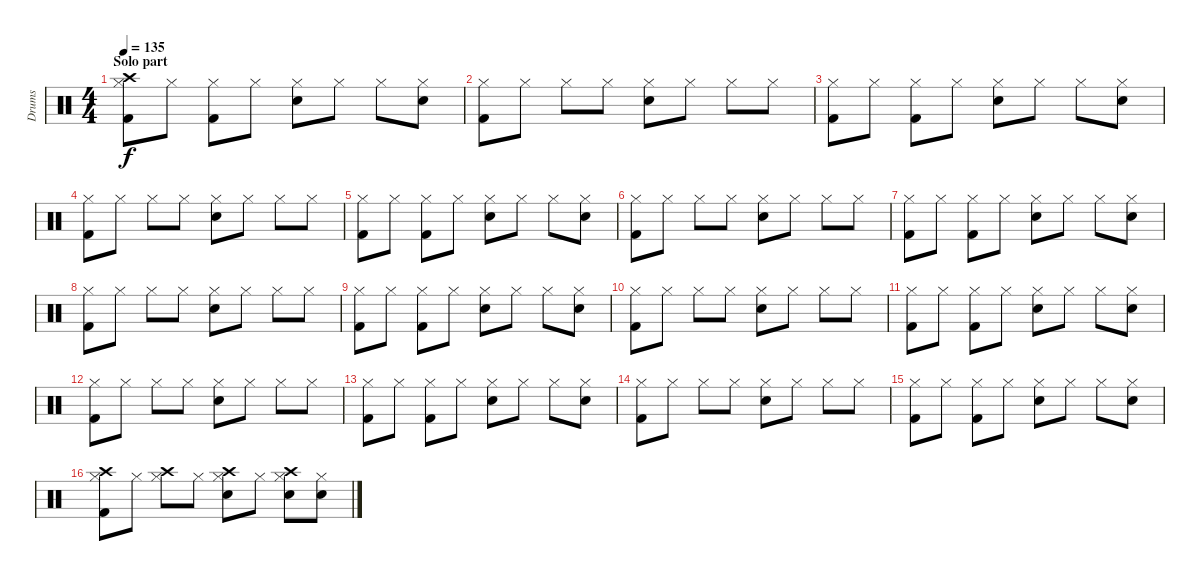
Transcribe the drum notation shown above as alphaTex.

\track ("Drums" "Drums") {instrument percussion}
\staff {score}
\articulation defaults
\ts (4 4)
\section ("" "Solo part")
\tempo 135
\clef neutral
\ks c
("Kick (hit) 2" "Hi-Hat (closed)" "Crash high (hit)").8{dy f} "Hi-Hat (closed)".8 ("Kick (hit) 2" "Hi-Hat (closed)").8 "Hi-Hat (closed)".8 ("Snare (hit) 2" "Hi-Hat (closed)").8 "Hi-Hat (closed)".8 "Hi-Hat (closed)".8 ("Snare (hit) 2" "Hi-Hat (closed)").8 |
("Kick (hit) 2" "Hi-Hat (closed)").8 "Hi-Hat (closed)".8 "Hi-Hat (closed)".8 "Hi-Hat (closed)".8 ("Snare (hit) 2" "Hi-Hat (closed)").8 "Hi-Hat (closed)".8 "Hi-Hat (closed)".8 "Hi-Hat (closed)".8 |
("Kick (hit) 2" "Hi-Hat (closed)").8 "Hi-Hat (closed)".8 ("Kick (hit) 2" "Hi-Hat (closed)").8 "Hi-Hat (closed)".8 ("Snare (hit) 2" "Hi-Hat (closed)").8 "Hi-Hat (closed)".8 "Hi-Hat (closed)".8 ("Snare (hit) 2" "Hi-Hat (closed)").8 |
("Kick (hit) 2" "Hi-Hat (closed)").8 "Hi-Hat (closed)".8 "Hi-Hat (closed)".8 "Hi-Hat (closed)".8 ("Snare (hit) 2" "Hi-Hat (closed)").8 "Hi-Hat (closed)".8 "Hi-Hat (closed)".8 "Hi-Hat (closed)".8 |
("Kick (hit) 2" "Hi-Hat (closed)").8 "Hi-Hat (closed)".8 ("Kick (hit) 2" "Hi-Hat (closed)").8 "Hi-Hat (closed)".8 ("Snare (hit) 2" "Hi-Hat (closed)").8 "Hi-Hat (closed)".8 "Hi-Hat (closed)".8 ("Snare (hit) 2" "Hi-Hat (closed)").8 |
("Kick (hit) 2" "Hi-Hat (closed)").8 "Hi-Hat (closed)".8 "Hi-Hat (closed)".8 "Hi-Hat (closed)".8 ("Snare (hit) 2" "Hi-Hat (closed)").8 "Hi-Hat (closed)".8 "Hi-Hat (closed)".8 "Hi-Hat (closed)".8 |
("Kick (hit) 2" "Hi-Hat (closed)").8 "Hi-Hat (closed)".8 ("Kick (hit) 2" "Hi-Hat (closed)").8 "Hi-Hat (closed)".8 ("Snare (hit) 2" "Hi-Hat (closed)").8 "Hi-Hat (closed)".8 "Hi-Hat (closed)".8 ("Snare (hit) 2" "Hi-Hat (closed)").8 |
("Kick (hit) 2" "Hi-Hat (closed)").8 "Hi-Hat (closed)".8 "Hi-Hat (closed)".8 "Hi-Hat (closed)".8 ("Snare (hit) 2" "Hi-Hat (closed)").8 "Hi-Hat (closed)".8 "Hi-Hat (closed)".8 "Hi-Hat (closed)".8 |
("Kick (hit) 2" "Hi-Hat (closed)").8 "Hi-Hat (closed)".8 ("Kick (hit) 2" "Hi-Hat (closed)").8 "Hi-Hat (closed)".8 ("Snare (hit) 2" "Hi-Hat (closed)").8 "Hi-Hat (closed)".8 "Hi-Hat (closed)".8 ("Snare (hit) 2" "Hi-Hat (closed)").8 |
("Kick (hit) 2" "Hi-Hat (closed)").8 "Hi-Hat (closed)".8 "Hi-Hat (closed)".8 "Hi-Hat (closed)".8 ("Snare (hit) 2" "Hi-Hat (closed)").8 "Hi-Hat (closed)".8 "Hi-Hat (closed)".8 "Hi-Hat (closed)".8 |
("Kick (hit) 2" "Hi-Hat (closed)").8 "Hi-Hat (closed)".8 ("Kick (hit) 2" "Hi-Hat (closed)").8 "Hi-Hat (closed)".8 ("Snare (hit) 2" "Hi-Hat (closed)").8 "Hi-Hat (closed)".8 "Hi-Hat (closed)".8 ("Snare (hit) 2" "Hi-Hat (closed)").8 |
("Kick (hit) 2" "Hi-Hat (closed)").8 "Hi-Hat (closed)".8 "Hi-Hat (closed)".8 "Hi-Hat (closed)".8 ("Snare (hit) 2" "Hi-Hat (closed)").8 "Hi-Hat (closed)".8 "Hi-Hat (closed)".8 "Hi-Hat (closed)".8 |
("Kick (hit) 2" "Hi-Hat (closed)").8 "Hi-Hat (closed)".8 ("Kick (hit) 2" "Hi-Hat (closed)").8 "Hi-Hat (closed)".8 ("Snare (hit) 2" "Hi-Hat (closed)").8 "Hi-Hat (closed)".8 "Hi-Hat (closed)".8 ("Snare (hit) 2" "Hi-Hat (closed)").8 |
("Kick (hit) 2" "Hi-Hat (closed)").8 "Hi-Hat (closed)".8 "Hi-Hat (closed)".8 "Hi-Hat (closed)".8 ("Snare (hit) 2" "Hi-Hat (closed)").8 "Hi-Hat (closed)".8 "Hi-Hat (closed)".8 "Hi-Hat (closed)".8 |
("Kick (hit) 2" "Hi-Hat (closed)").8 "Hi-Hat (closed)".8 ("Kick (hit) 2" "Hi-Hat (closed)").8 "Hi-Hat (closed)".8 ("Snare (hit) 2" "Hi-Hat (closed)").8 "Hi-Hat (closed)".8 "Hi-Hat (closed)".8 ("Snare (hit) 2" "Hi-Hat (closed)").8 |
("Kick (hit) 2" "Hi-Hat (closed)" "Crash high (hit)").8 "Hi-Hat (closed)".8 ("Hi-Hat (closed)" "Crash high (hit)").8 "Hi-Hat (closed)".8 ("Snare (hit) 2" "Hi-Hat (closed)" "Crash high (hit)").8 "Hi-Hat (closed)".8 ("Snare (hit) 2" "Hi-Hat (closed)" "Crash high (hit)").8 ("Snare (hit) 2" "Hi-Hat (closed)").8
